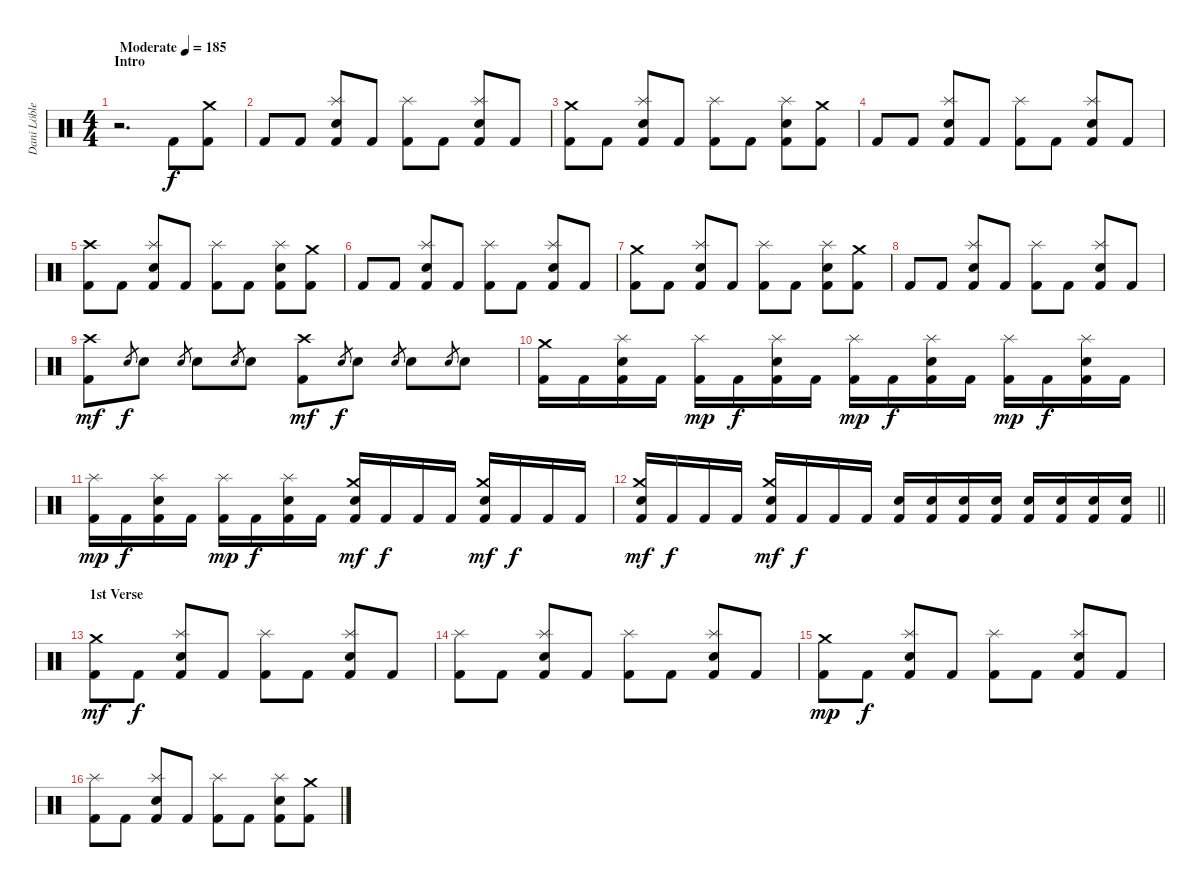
\track ("Dani Löble" "Dani Löble") {instrument percussion}
\staff {score}
\articulation defaults
\ts (4 4)
\section ("" "Intro")
\tempo (185 "Moderate")
\clef neutral
\ks c
r.2{d dy f volume 16} "Kick (hit) 2".8 ("Crash medium (hit)" "Kick (hit) 2").8 |
"Kick (hit) 2".8 "Kick (hit) 2".8 ("Splash (hit)" "Electric Snare (hit)" "Kick (hit) 2").8 "Kick (hit) 2".8 ("Splash (hit)" "Kick (hit) 2").8 "Kick (hit) 2".8 ("Splash (hit)" "Electric Snare (hit)" "Kick (hit) 2").8 "Kick (hit) 2".8 |
("Crash medium (hit)" "Kick (hit) 2").8 "Kick (hit) 2".8 ("Splash (hit)" "Electric Snare (hit)" "Kick (hit) 2").8 "Kick (hit) 2".8 ("Splash (hit)" "Kick (hit) 2").8 "Kick (hit) 2".8 ("Splash (hit)" "Electric Snare (hit)" "Kick (hit) 2").8 ("Crash medium (hit)" "Kick (hit) 2").8 |
"Kick (hit) 2".8 "Kick (hit) 2".8 ("Splash (hit)" "Electric Snare (hit)" "Kick (hit) 2").8 "Kick (hit) 2".8 ("Splash (hit)" "Kick (hit) 2").8 "Kick (hit) 2".8 ("Splash (hit)" "Electric Snare (hit)" "Kick (hit) 2").8 "Kick (hit) 2".8 |
("Crash high (hit)" "Kick (hit) 2").8 "Kick (hit) 2".8 ("Splash (hit)" "Electric Snare (hit)" "Kick (hit) 2").8 "Kick (hit) 2".8 ("Splash (hit)" "Kick (hit) 2").8 "Kick (hit) 2".8 ("Splash (hit)" "Electric Snare (hit)" "Kick (hit) 2").8 ("Crash medium (hit)" "Kick (hit) 2").8 |
"Kick (hit) 2".8 "Kick (hit) 2".8 ("Splash (hit)" "Electric Snare (hit)" "Kick (hit) 2").8 "Kick (hit) 2".8 ("Splash (hit)" "Kick (hit) 2").8 "Kick (hit) 2".8 ("Splash (hit)" "Electric Snare (hit)" "Kick (hit) 2").8 "Kick (hit) 2".8 |
("Crash medium (hit)" "Kick (hit) 2").8 "Kick (hit) 2".8 ("Splash (hit)" "Electric Snare (hit)" "Kick (hit) 2").8 "Kick (hit) 2".8 ("Splash (hit)" "Kick (hit) 2").8 "Kick (hit) 2".8 ("Splash (hit)" "Electric Snare (hit)" "Kick (hit) 2").8 ("Crash medium (hit)" "Kick (hit) 2").8 |
"Kick (hit) 2".8 "Kick (hit) 2".8 ("Splash (hit)" "Electric Snare (hit)" "Kick (hit) 2").8 "Kick (hit) 2".8 ("Splash (hit)" "Kick (hit) 2").8 "Kick (hit) 2".8 ("Splash (hit)" "Electric Snare (hit)" "Kick (hit) 2").8 "Kick (hit) 2".8 |
("Crash high (hit)" "Kick (hit) 2").8{dy mf} "Electric Snare (hit)".8{gr dy f} "Electric Snare (hit)".8 "Electric Snare (hit)".8{gr} "Electric Snare (hit)".8 "Electric Snare (hit)".8{gr} "Electric Snare (hit)".8 ("Crash high (hit)" "Kick (hit) 2").8{dy mf} "Electric Snare (hit)".8{gr dy f} "Electric Snare (hit)".8 "Electric Snare (hit)".8{gr} "Electric Snare (hit)".8 "Electric Snare (hit)".8{gr} "Electric Snare (hit)".8 |
("Crash medium (hit)" "Kick (hit) 2").16 "Kick (hit) 2".16 ("Splash (hit)" "Electric Snare (hit)" "Kick (hit) 2").16 "Kick (hit) 2".16 ("Splash (hit)" "Kick (hit) 2").16{dy mp} "Kick (hit) 2".16{dy f} ("Splash (hit)" "Electric Snare (hit)" "Kick (hit) 2").16 "Kick (hit) 2".16 ("Splash (hit)" "Kick (hit) 2").16{dy mp} "Kick (hit) 2".16{dy f} ("Splash (hit)" "Electric Snare (hit)" "Kick (hit) 2").16 "Kick (hit) 2".16 ("Splash (hit)" "Kick (hit) 2").16{dy mp} "Kick (hit) 2".16{dy f} ("Splash (hit)" "Electric Snare (hit)" "Kick (hit) 2").16 "Kick (hit) 2".16 |
("Splash (hit)" "Kick (hit) 2").16{dy mp} "Kick (hit) 2".16{dy f} ("Splash (hit)" "Electric Snare (hit)" "Kick (hit) 2").16 "Kick (hit) 2".16 ("Splash (hit)" "Kick (hit) 2").16{dy mp} "Kick (hit) 2".16{dy f} ("Splash (hit)" "Electric Snare (hit)" "Kick (hit) 2").16 "Kick (hit) 2".16 ("Crash medium (hit)" "Electric Snare (hit)" "Kick (hit) 2").16{dy mf} "Kick (hit) 2".16{dy f} "Kick (hit) 2".16 "Kick (hit) 2".16 ("Crash medium (hit)" "Electric Snare (hit)" "Kick (hit) 2").16{dy mf} "Kick (hit) 2".16{dy f} "Kick (hit) 2".16 "Kick (hit) 2".16 |
\barLineRight lightlight
("Crash medium (hit)" "Electric Snare (hit)" "Kick (hit) 2").16{dy mf} "Kick (hit) 2".16{dy f} "Kick (hit) 2".16 "Kick (hit) 2".16 ("Crash medium (hit)" "Electric Snare (hit)" "Kick (hit) 2").16{dy mf} "Kick (hit) 2".16{dy f} "Kick (hit) 2".16 "Kick (hit) 2".16 ("Electric Snare (hit)" "Kick (hit) 2").16 ("Electric Snare (hit)" "Kick (hit) 2").16 ("Electric Snare (hit)" "Kick (hit) 2").16 ("Electric Snare (hit)" "Kick (hit) 2").16 ("Electric Snare (hit)" "Kick (hit) 2").16 ("Electric Snare (hit)" "Kick (hit) 2").16 ("Electric Snare (hit)" "Kick (hit) 2").16 ("Electric Snare (hit)" "Kick (hit) 2").16 |
\section ("" "1st Verse")
("Crash medium (hit)" "Kick (hit) 2").8{dy mf} "Kick (hit) 2".8{dy f} ("Splash (hit)" "Electric Snare (hit)" "Kick (hit) 2").8 "Kick (hit) 2".8 ("Splash (hit)" "Kick (hit) 2").8 "Kick (hit) 2".8 ("Splash (hit)" "Electric Snare (hit)" "Kick (hit) 2").8 "Kick (hit) 2".8 |
("Splash (hit)" "Kick (hit) 2").8 "Kick (hit) 2".8 ("Splash (hit)" "Electric Snare (hit)" "Kick (hit) 2").8 "Kick (hit) 2".8 ("Splash (hit)" "Kick (hit) 2").8 "Kick (hit) 2".8 ("Splash (hit)" "Electric Snare (hit)" "Kick (hit) 2").8 "Kick (hit) 2".8 |
("Crash medium (hit)" "Kick (hit) 2").8{dy mp} "Kick (hit) 2".8{dy f} ("Splash (hit)" "Electric Snare (hit)" "Kick (hit) 2").8 "Kick (hit) 2".8 ("Splash (hit)" "Kick (hit) 2").8 "Kick (hit) 2".8 ("Splash (hit)" "Electric Snare (hit)" "Kick (hit) 2").8 "Kick (hit) 2".8 |
("Splash (hit)" "Kick (hit) 2").8 "Kick (hit) 2".8 ("Splash (hit)" "Electric Snare (hit)" "Kick (hit) 2").8 "Kick (hit) 2".8 ("Splash (hit)" "Kick (hit) 2").8 "Kick (hit) 2".8 ("Splash (hit)" "Electric Snare (hit)" "Kick (hit) 2").8 ("Crash medium (hit)" "Kick (hit) 2").8
